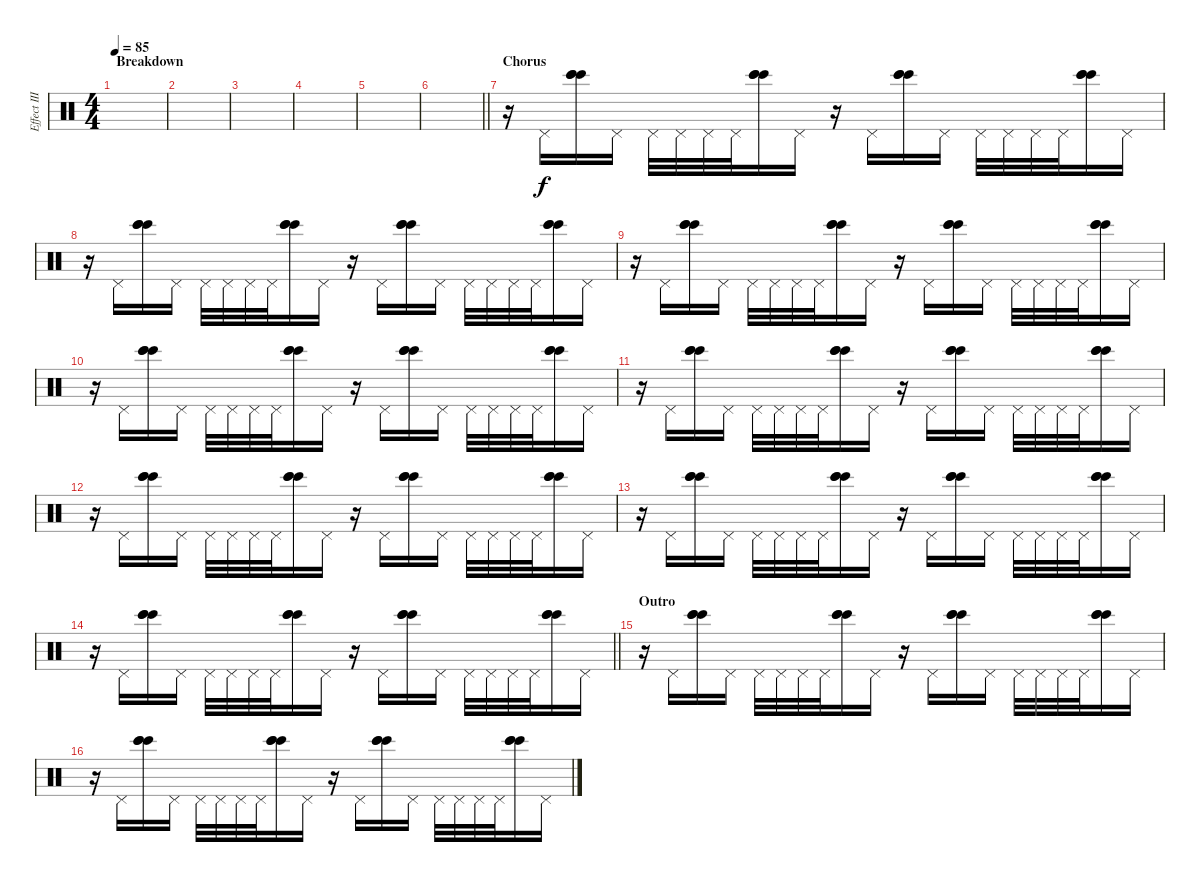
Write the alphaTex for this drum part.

\track ("Effect III" "Effect III") {instrument percussion}
\staff {score}
\articulation defaults
\ts (4 4)
\section ("" "Breakdown")
\tempo 85
\clef neutral
\ks c
|
|
|
|
|
\barLineRight lightlight
|
\section ("" "Chorus")
r.16 "Pedal Hi-Hat (hit)".16 ("Bongo High (hit)" "Bongo High (hit)" "Bongo High (hit)").16 "Pedal Hi-Hat (hit)".16 "Pedal Hi-Hat (hit)".32 "Pedal Hi-Hat (hit)".32 "Pedal Hi-Hat (hit)".32 "Pedal Hi-Hat (hit)".32 ("Bongo High (hit)" "Bongo High (hit)" "Bongo High (hit)").16 "Pedal Hi-Hat (hit)".16 r.16 "Pedal Hi-Hat (hit)".16 ("Bongo High (hit)" "Bongo High (hit)" "Bongo High (hit)").16 "Pedal Hi-Hat (hit)".16 "Pedal Hi-Hat (hit)".32 "Pedal Hi-Hat (hit)".32 "Pedal Hi-Hat (hit)".32 "Pedal Hi-Hat (hit)".32 ("Bongo High (hit)" "Bongo High (hit)" "Bongo High (hit)").16 "Pedal Hi-Hat (hit)".16 |
r.16 "Pedal Hi-Hat (hit)".16 ("Bongo High (hit)" "Bongo High (hit)" "Bongo High (hit)").16 "Pedal Hi-Hat (hit)".16 "Pedal Hi-Hat (hit)".32 "Pedal Hi-Hat (hit)".32 "Pedal Hi-Hat (hit)".32 "Pedal Hi-Hat (hit)".32 ("Bongo High (hit)" "Bongo High (hit)" "Bongo High (hit)").16 "Pedal Hi-Hat (hit)".16 r.16 "Pedal Hi-Hat (hit)".16 ("Bongo High (hit)" "Bongo High (hit)" "Bongo High (hit)").16 "Pedal Hi-Hat (hit)".16 "Pedal Hi-Hat (hit)".32 "Pedal Hi-Hat (hit)".32 "Pedal Hi-Hat (hit)".32 "Pedal Hi-Hat (hit)".32 ("Bongo High (hit)" "Bongo High (hit)" "Bongo High (hit)").16 "Pedal Hi-Hat (hit)".16 |
r.16 "Pedal Hi-Hat (hit)".16 ("Bongo High (hit)" "Bongo High (hit)" "Bongo High (hit)").16 "Pedal Hi-Hat (hit)".16 "Pedal Hi-Hat (hit)".32 "Pedal Hi-Hat (hit)".32 "Pedal Hi-Hat (hit)".32 "Pedal Hi-Hat (hit)".32 ("Bongo High (hit)" "Bongo High (hit)" "Bongo High (hit)").16 "Pedal Hi-Hat (hit)".16 r.16 "Pedal Hi-Hat (hit)".16 ("Bongo High (hit)" "Bongo High (hit)" "Bongo High (hit)").16 "Pedal Hi-Hat (hit)".16 "Pedal Hi-Hat (hit)".32 "Pedal Hi-Hat (hit)".32 "Pedal Hi-Hat (hit)".32 "Pedal Hi-Hat (hit)".32 ("Bongo High (hit)" "Bongo High (hit)" "Bongo High (hit)").16 "Pedal Hi-Hat (hit)".16 |
r.16 "Pedal Hi-Hat (hit)".16 ("Bongo High (hit)" "Bongo High (hit)" "Bongo High (hit)").16 "Pedal Hi-Hat (hit)".16 "Pedal Hi-Hat (hit)".32 "Pedal Hi-Hat (hit)".32 "Pedal Hi-Hat (hit)".32 "Pedal Hi-Hat (hit)".32 ("Bongo High (hit)" "Bongo High (hit)" "Bongo High (hit)").16 "Pedal Hi-Hat (hit)".16 r.16 "Pedal Hi-Hat (hit)".16 ("Bongo High (hit)" "Bongo High (hit)" "Bongo High (hit)").16 "Pedal Hi-Hat (hit)".16 "Pedal Hi-Hat (hit)".32 "Pedal Hi-Hat (hit)".32 "Pedal Hi-Hat (hit)".32 "Pedal Hi-Hat (hit)".32 ("Bongo High (hit)" "Bongo High (hit)" "Bongo High (hit)").16 "Pedal Hi-Hat (hit)".16 |
r.16 "Pedal Hi-Hat (hit)".16 ("Bongo High (hit)" "Bongo High (hit)" "Bongo High (hit)").16 "Pedal Hi-Hat (hit)".16 "Pedal Hi-Hat (hit)".32 "Pedal Hi-Hat (hit)".32 "Pedal Hi-Hat (hit)".32 "Pedal Hi-Hat (hit)".32 ("Bongo High (hit)" "Bongo High (hit)" "Bongo High (hit)").16 "Pedal Hi-Hat (hit)".16 r.16 "Pedal Hi-Hat (hit)".16 ("Bongo High (hit)" "Bongo High (hit)" "Bongo High (hit)").16 "Pedal Hi-Hat (hit)".16 "Pedal Hi-Hat (hit)".32 "Pedal Hi-Hat (hit)".32 "Pedal Hi-Hat (hit)".32 "Pedal Hi-Hat (hit)".32 ("Bongo High (hit)" "Bongo High (hit)" "Bongo High (hit)").16 "Pedal Hi-Hat (hit)".16 |
r.16 "Pedal Hi-Hat (hit)".16 ("Bongo High (hit)" "Bongo High (hit)" "Bongo High (hit)").16 "Pedal Hi-Hat (hit)".16 "Pedal Hi-Hat (hit)".32 "Pedal Hi-Hat (hit)".32 "Pedal Hi-Hat (hit)".32 "Pedal Hi-Hat (hit)".32 ("Bongo High (hit)" "Bongo High (hit)" "Bongo High (hit)").16 "Pedal Hi-Hat (hit)".16 r.16 "Pedal Hi-Hat (hit)".16 ("Bongo High (hit)" "Bongo High (hit)" "Bongo High (hit)").16 "Pedal Hi-Hat (hit)".16 "Pedal Hi-Hat (hit)".32 "Pedal Hi-Hat (hit)".32 "Pedal Hi-Hat (hit)".32 "Pedal Hi-Hat (hit)".32 ("Bongo High (hit)" "Bongo High (hit)" "Bongo High (hit)").16 "Pedal Hi-Hat (hit)".16 |
r.16 "Pedal Hi-Hat (hit)".16 ("Bongo High (hit)" "Bongo High (hit)" "Bongo High (hit)").16 "Pedal Hi-Hat (hit)".16 "Pedal Hi-Hat (hit)".32 "Pedal Hi-Hat (hit)".32 "Pedal Hi-Hat (hit)".32 "Pedal Hi-Hat (hit)".32 ("Bongo High (hit)" "Bongo High (hit)" "Bongo High (hit)").16 "Pedal Hi-Hat (hit)".16 r.16 "Pedal Hi-Hat (hit)".16 ("Bongo High (hit)" "Bongo High (hit)" "Bongo High (hit)").16 "Pedal Hi-Hat (hit)".16 "Pedal Hi-Hat (hit)".32 "Pedal Hi-Hat (hit)".32 "Pedal Hi-Hat (hit)".32 "Pedal Hi-Hat (hit)".32 ("Bongo High (hit)" "Bongo High (hit)" "Bongo High (hit)").16 "Pedal Hi-Hat (hit)".16 |
\barLineRight lightlight
r.16 "Pedal Hi-Hat (hit)".16 ("Bongo High (hit)" "Bongo High (hit)" "Bongo High (hit)").16 "Pedal Hi-Hat (hit)".16 "Pedal Hi-Hat (hit)".32 "Pedal Hi-Hat (hit)".32 "Pedal Hi-Hat (hit)".32 "Pedal Hi-Hat (hit)".32 ("Bongo High (hit)" "Bongo High (hit)" "Bongo High (hit)").16 "Pedal Hi-Hat (hit)".16 r.16 "Pedal Hi-Hat (hit)".16 ("Bongo High (hit)" "Bongo High (hit)" "Bongo High (hit)").16 "Pedal Hi-Hat (hit)".16 "Pedal Hi-Hat (hit)".32 "Pedal Hi-Hat (hit)".32 "Pedal Hi-Hat (hit)".32 "Pedal Hi-Hat (hit)".32 ("Bongo High (hit)" "Bongo High (hit)" "Bongo High (hit)").16 "Pedal Hi-Hat (hit)".16 |
\section ("" "Outro")
r.16 "Pedal Hi-Hat (hit)".16 ("Bongo High (hit)" "Bongo High (hit)" "Bongo High (hit)").16 "Pedal Hi-Hat (hit)".16 "Pedal Hi-Hat (hit)".32 "Pedal Hi-Hat (hit)".32 "Pedal Hi-Hat (hit)".32 "Pedal Hi-Hat (hit)".32 ("Bongo High (hit)" "Bongo High (hit)" "Bongo High (hit)").16 "Pedal Hi-Hat (hit)".16 r.16 "Pedal Hi-Hat (hit)".16 ("Bongo High (hit)" "Bongo High (hit)" "Bongo High (hit)").16 "Pedal Hi-Hat (hit)".16 "Pedal Hi-Hat (hit)".32 "Pedal Hi-Hat (hit)".32 "Pedal Hi-Hat (hit)".32 "Pedal Hi-Hat (hit)".32 ("Bongo High (hit)" "Bongo High (hit)" "Bongo High (hit)").16 "Pedal Hi-Hat (hit)".16 |
r.16 "Pedal Hi-Hat (hit)".16 ("Bongo High (hit)" "Bongo High (hit)" "Bongo High (hit)").16 "Pedal Hi-Hat (hit)".16 "Pedal Hi-Hat (hit)".32 "Pedal Hi-Hat (hit)".32 "Pedal Hi-Hat (hit)".32 "Pedal Hi-Hat (hit)".32 ("Bongo High (hit)" "Bongo High (hit)" "Bongo High (hit)").16 "Pedal Hi-Hat (hit)".16 r.16 "Pedal Hi-Hat (hit)".16 ("Bongo High (hit)" "Bongo High (hit)" "Bongo High (hit)").16 "Pedal Hi-Hat (hit)".16 "Pedal Hi-Hat (hit)".32 "Pedal Hi-Hat (hit)".32 "Pedal Hi-Hat (hit)".32 "Pedal Hi-Hat (hit)".32 ("Bongo High (hit)" "Bongo High (hit)" "Bongo High (hit)").16 "Pedal Hi-Hat (hit)".16
